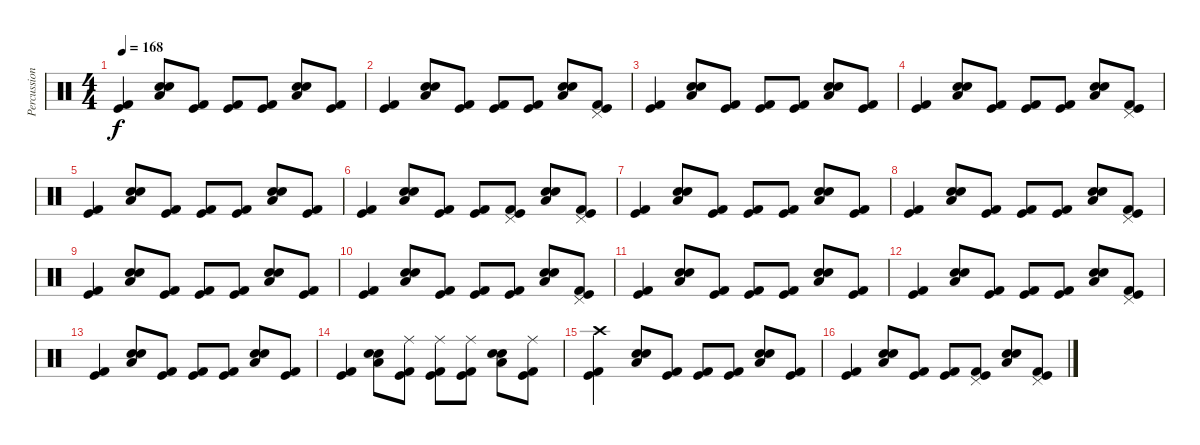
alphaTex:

\track ("Percussion" "Percussion") {instrument percussion}
\staff {score}
\articulation defaults
\ts (4 4)
\tempo 168
\clef neutral
\ks c
("Kick (hit)" "Kick (hit) 2").4{dy f} ("Electric Snare (hit)" "Low Floor Tom (hit)" "Snare (hit) 2").8 ("Kick (hit)" "Kick (hit) 2").8 ("Kick (hit)" "Kick (hit) 2").8 ("Kick (hit)" "Kick (hit) 2").8 ("Electric Snare (hit)" "Low Floor Tom (hit)" "Snare (hit) 2").8 ("Kick (hit)" "Kick (hit) 2").8 |
("Kick (hit)" "Kick (hit) 2").4 ("Electric Snare (hit)" "Low Floor Tom (hit)" "Snare (hit) 2").8 ("Kick (hit)" "Kick (hit) 2").8 ("Kick (hit)" "Kick (hit) 2").8 ("Kick (hit)" "Kick (hit) 2").8 ("Electric Snare (hit)" "Low Floor Tom (hit)" "Snare (hit) 2").8 ("Pedal Hi-Hat (hit)" "Kick (hit)" "Kick (hit) 2").8 |
("Kick (hit)" "Kick (hit) 2").4 ("Electric Snare (hit)" "Low Floor Tom (hit)" "Snare (hit) 2").8 ("Kick (hit)" "Kick (hit) 2").8 ("Kick (hit)" "Kick (hit) 2").8 ("Kick (hit)" "Kick (hit) 2").8 ("Electric Snare (hit)" "Low Floor Tom (hit)" "Snare (hit) 2").8 ("Kick (hit)" "Kick (hit) 2").8 |
("Kick (hit)" "Kick (hit) 2").4 ("Electric Snare (hit)" "Low Floor Tom (hit)" "Snare (hit) 2").8 ("Kick (hit)" "Kick (hit) 2").8 ("Kick (hit)" "Kick (hit) 2").8 ("Kick (hit)" "Kick (hit) 2").8 ("Electric Snare (hit)" "Low Floor Tom (hit)" "Snare (hit) 2").8 ("Pedal Hi-Hat (hit)" "Kick (hit)" "Kick (hit) 2").8 |
("Kick (hit)" "Kick (hit) 2").4 ("Electric Snare (hit)" "Low Floor Tom (hit)" "Snare (hit) 2").8 ("Kick (hit)" "Kick (hit) 2").8 ("Kick (hit)" "Kick (hit) 2").8 ("Kick (hit)" "Kick (hit) 2").8 ("Electric Snare (hit)" "Low Floor Tom (hit)" "Snare (hit) 2").8 ("Kick (hit)" "Kick (hit) 2").8 |
("Kick (hit)" "Kick (hit) 2").4 ("Electric Snare (hit)" "Low Floor Tom (hit)" "Snare (hit) 2").8 ("Kick (hit)" "Kick (hit) 2").8 ("Kick (hit)" "Kick (hit) 2").8 ("Pedal Hi-Hat (hit)" "Kick (hit)" "Kick (hit) 2").8 ("Electric Snare (hit)" "Low Floor Tom (hit)" "Snare (hit) 2").8 ("Pedal Hi-Hat (hit)" "Kick (hit)" "Kick (hit) 2").8 |
("Kick (hit)" "Kick (hit) 2").4 ("Electric Snare (hit)" "Low Floor Tom (hit)" "Snare (hit) 2").8 ("Kick (hit)" "Kick (hit) 2").8 ("Kick (hit)" "Kick (hit) 2").8 ("Kick (hit)" "Kick (hit) 2").8 ("Electric Snare (hit)" "Low Floor Tom (hit)" "Snare (hit) 2").8 ("Kick (hit)" "Kick (hit) 2").8 |
("Kick (hit)" "Kick (hit) 2").4 ("Electric Snare (hit)" "Low Floor Tom (hit)" "Snare (hit) 2").8 ("Kick (hit)" "Kick (hit) 2").8 ("Kick (hit)" "Kick (hit) 2").8 ("Kick (hit)" "Kick (hit) 2").8 ("Electric Snare (hit)" "Low Floor Tom (hit)" "Snare (hit) 2").8 ("Pedal Hi-Hat (hit)" "Kick (hit)" "Kick (hit) 2").8 |
("Kick (hit)" "Kick (hit) 2").4 ("Electric Snare (hit)" "Low Floor Tom (hit)" "Snare (hit) 2").8 ("Kick (hit)" "Kick (hit) 2").8 ("Kick (hit)" "Kick (hit) 2").8 ("Kick (hit)" "Kick (hit) 2").8 ("Electric Snare (hit)" "Low Floor Tom (hit)" "Snare (hit) 2").8 ("Kick (hit)" "Kick (hit) 2").8 |
("Kick (hit)" "Kick (hit) 2").4 ("Electric Snare (hit)" "Low Floor Tom (hit)" "Snare (hit) 2").8 ("Kick (hit)" "Kick (hit) 2").8 ("Kick (hit)" "Kick (hit) 2").8 ("Kick (hit)" "Kick (hit) 2").8 ("Electric Snare (hit)" "Low Floor Tom (hit)" "Snare (hit) 2").8 ("Pedal Hi-Hat (hit)" "Kick (hit)" "Kick (hit) 2").8 |
("Kick (hit)" "Kick (hit) 2").4 ("Electric Snare (hit)" "Low Floor Tom (hit)" "Snare (hit) 2").8 ("Kick (hit)" "Kick (hit) 2").8 ("Kick (hit)" "Kick (hit) 2").8 ("Kick (hit)" "Kick (hit) 2").8 ("Electric Snare (hit)" "Low Floor Tom (hit)" "Snare (hit) 2").8 ("Kick (hit)" "Kick (hit) 2").8 |
("Kick (hit)" "Kick (hit) 2").4 ("Electric Snare (hit)" "Low Floor Tom (hit)" "Snare (hit) 2").8 ("Kick (hit)" "Kick (hit) 2").8 ("Kick (hit)" "Kick (hit) 2").8 ("Kick (hit)" "Kick (hit) 2").8 ("Electric Snare (hit)" "Low Floor Tom (hit)" "Snare (hit) 2").8 ("Pedal Hi-Hat (hit)" "Kick (hit)" "Kick (hit) 2").8 |
("Kick (hit)" "Kick (hit) 2").4 ("Electric Snare (hit)" "Low Floor Tom (hit)" "Snare (hit) 2").8 ("Kick (hit)" "Kick (hit) 2").8 ("Kick (hit)" "Kick (hit) 2").8 ("Kick (hit)" "Kick (hit) 2").8 ("Electric Snare (hit)" "Low Floor Tom (hit)" "Snare (hit) 2").8 ("Kick (hit)" "Kick (hit) 2").8 |
("Kick (hit)" "Kick (hit) 2").4 ("Electric Snare (hit)" "Low Floor Tom (hit)" "Snare (hit) 2").8 ("Ride (middle)" "Kick (hit)" "Kick (hit) 2").8 ("Ride (middle)" "Kick (hit)" "Kick (hit) 2").8 ("Ride (middle)" "Kick (hit)" "Kick (hit) 2").8 ("Electric Snare (hit)" "Low Floor Tom (hit)" "Snare (hit) 2").8 ("Ride (middle)" "Kick (hit)" "Kick (hit) 2").8 |
("Crash high (hit)" "Kick (hit)" "Kick (hit) 2").4 ("Electric Snare (hit)" "Low Floor Tom (hit)" "Snare (hit) 2").8 ("Kick (hit)" "Kick (hit) 2").8 ("Kick (hit)" "Kick (hit) 2").8 ("Kick (hit)" "Kick (hit) 2").8 ("Electric Snare (hit)" "Low Floor Tom (hit)" "Snare (hit) 2").8 ("Kick (hit)" "Kick (hit) 2").8 |
("Kick (hit)" "Kick (hit) 2").4 ("Electric Snare (hit)" "Low Floor Tom (hit)" "Snare (hit) 2").8 ("Kick (hit)" "Kick (hit) 2").8 ("Kick (hit)" "Kick (hit) 2").8 ("Pedal Hi-Hat (hit)" "Kick (hit)" "Kick (hit) 2").8 ("Electric Snare (hit)" "Low Floor Tom (hit)" "Snare (hit) 2").8 ("Pedal Hi-Hat (hit)" "Kick (hit)" "Kick (hit) 2").8
